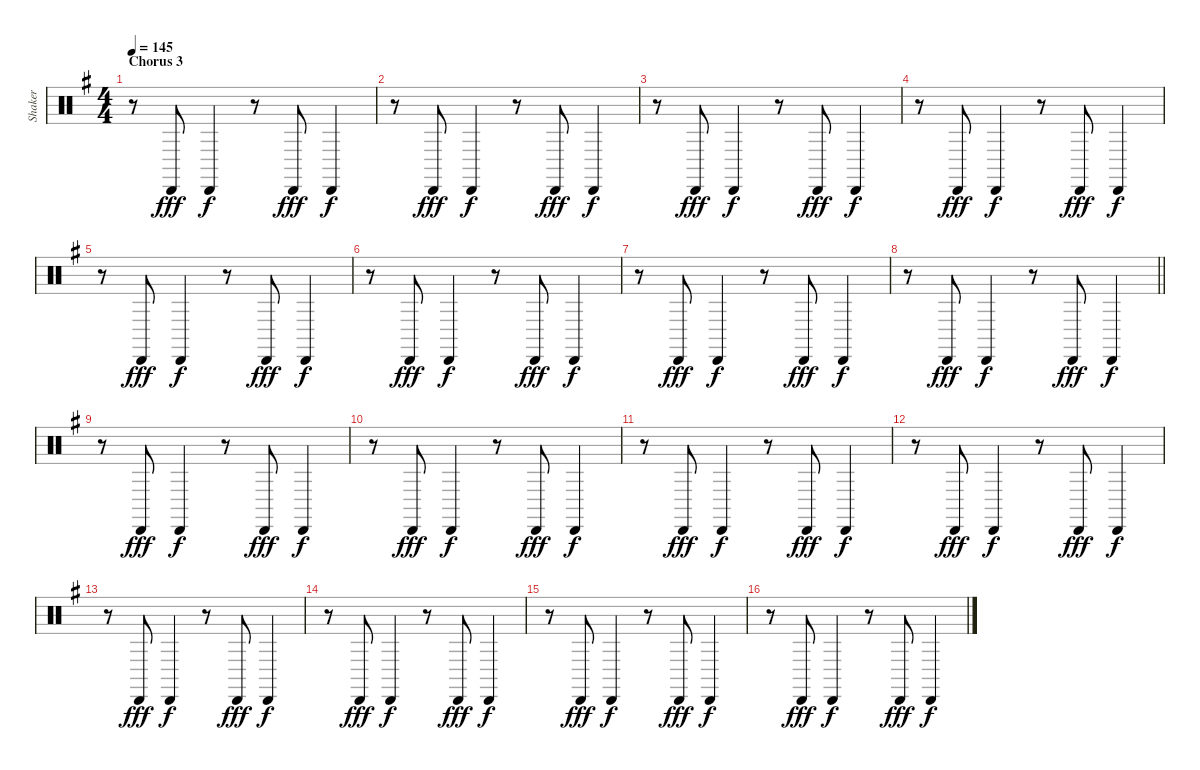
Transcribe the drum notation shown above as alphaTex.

\track ("Shaker" "Shaker") {instrument percussion}
\staff {score}
\articulation defaults
\ts (4 4)
\section ("" "Chorus 3")
\tempo 145
\clef neutral
\ks g
r.8{dy f} "Cabasa (hit)".8{dy fff} "Cabasa (hit)".4{dy f} r.8 "Cabasa (hit)".8{dy fff} "Cabasa (hit)".4{dy f} |
r.8 "Cabasa (hit)".8{dy fff} "Cabasa (hit)".4{dy f} r.8 "Cabasa (hit)".8{dy fff} "Cabasa (hit)".4{dy f} |
r.8 "Cabasa (hit)".8{dy fff} "Cabasa (hit)".4{dy f} r.8 "Cabasa (hit)".8{dy fff} "Cabasa (hit)".4{dy f} |
r.8 "Cabasa (hit)".8{dy fff} "Cabasa (hit)".4{dy f} r.8 "Cabasa (hit)".8{dy fff} "Cabasa (hit)".4{dy f} |
r.8 "Cabasa (hit)".8{dy fff} "Cabasa (hit)".4{dy f} r.8 "Cabasa (hit)".8{dy fff} "Cabasa (hit)".4{dy f} |
r.8 "Cabasa (hit)".8{dy fff} "Cabasa (hit)".4{dy f} r.8 "Cabasa (hit)".8{dy fff} "Cabasa (hit)".4{dy f} |
r.8 "Cabasa (hit)".8{dy fff} "Cabasa (hit)".4{dy f} r.8 "Cabasa (hit)".8{dy fff} "Cabasa (hit)".4{dy f} |
\barLineRight lightlight
r.8 "Cabasa (hit)".8{dy fff} "Cabasa (hit)".4{dy f} r.8 "Cabasa (hit)".8{dy fff} "Cabasa (hit)".4{dy f} |
r.8 "Cabasa (hit)".8{dy fff} "Cabasa (hit)".4{dy f} r.8 "Cabasa (hit)".8{dy fff} "Cabasa (hit)".4{dy f} |
r.8 "Cabasa (hit)".8{dy fff} "Cabasa (hit)".4{dy f} r.8 "Cabasa (hit)".8{dy fff} "Cabasa (hit)".4{dy f} |
r.8 "Cabasa (hit)".8{dy fff} "Cabasa (hit)".4{dy f} r.8 "Cabasa (hit)".8{dy fff} "Cabasa (hit)".4{dy f} |
r.8 "Cabasa (hit)".8{dy fff} "Cabasa (hit)".4{dy f} r.8 "Cabasa (hit)".8{dy fff} "Cabasa (hit)".4{dy f} |
r.8 "Cabasa (hit)".8{dy fff} "Cabasa (hit)".4{dy f} r.8 "Cabasa (hit)".8{dy fff} "Cabasa (hit)".4{dy f} |
r.8 "Cabasa (hit)".8{dy fff} "Cabasa (hit)".4{dy f} r.8 "Cabasa (hit)".8{dy fff} "Cabasa (hit)".4{dy f} |
r.8 "Cabasa (hit)".8{dy fff} "Cabasa (hit)".4{dy f} r.8 "Cabasa (hit)".8{dy fff} "Cabasa (hit)".4{dy f} |
r.8 "Cabasa (hit)".8{dy fff} "Cabasa (hit)".4{dy f} r.8 "Cabasa (hit)".8{dy fff} "Cabasa (hit)".4{dy f}
